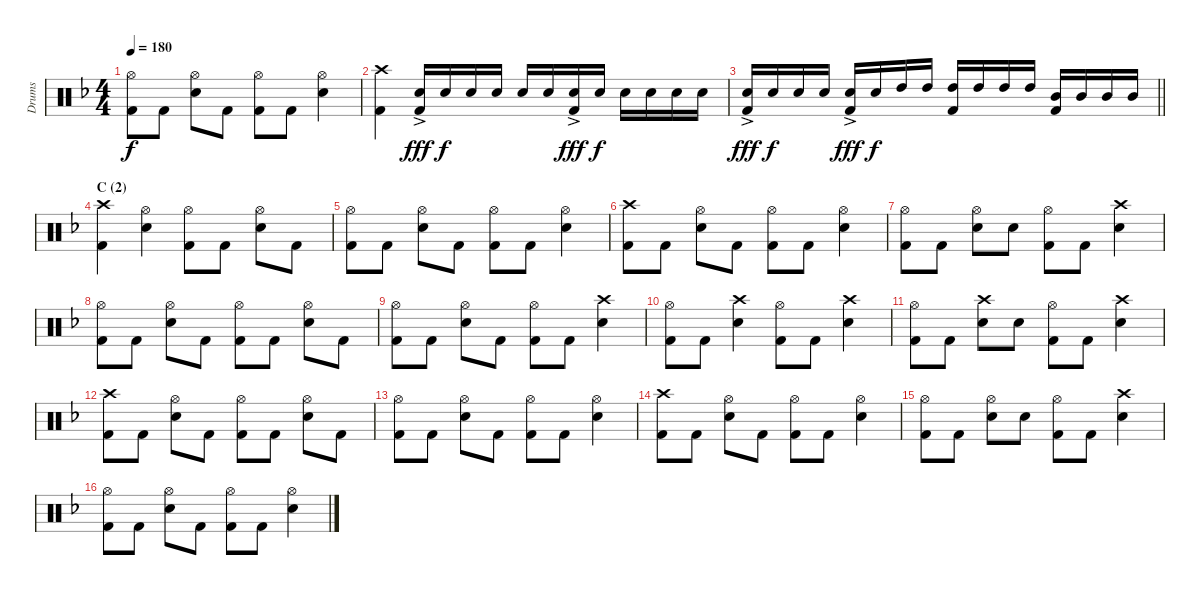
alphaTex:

\track ("Drums" "Drums") {instrument percussion}
\staff {score}
\articulation defaults
\ts (4 4)
\tempo 180
\clef neutral
\ks dminor
("Hi-Hat (open)" "Kick (hit) 2").8{dy f} "Kick (hit) 2".8 ("Hi-Hat (open)" "Snare (hit) 2").8 "Kick (hit) 2".8 ("Hi-Hat (open)" "Kick (hit) 2").8 "Kick (hit) 2".8 ("Hi-Hat (open)" "Snare (hit) 2").4 |
("Crash high (hit)" "Kick (hit) 2").4 ("Snare (hit) 2" "Kick (hit) 2"{ac}).16{dy fff} "Snare (hit) 2".16{dy f} "Snare (hit) 2".16 "Snare (hit) 2".16 "Snare (hit) 2".16 "Snare (hit) 2".16 ("Snare (hit) 2"{ac} "Kick (hit) 2").16{dy fff} "Snare (hit) 2".16{dy f} "Snare (hit) 2".16 "Snare (hit) 2".16 "Snare (hit) 2".16 "Snare (hit) 2".16 |
\barLineRight lightlight
("Snare (hit) 2"{ac} "Kick (hit) 2").16{dy fff} "Snare (hit) 2".16{dy f} "Snare (hit) 2".16 "Snare (hit) 2".16 ("Snare (hit) 2"{ac} "Kick (hit) 2").16{dy fff} "Snare (hit) 2".16{dy f} "High Tom (hit)".16 "High Tom (hit)".16 ("High Tom (hit)" "Kick (hit) 2").16 "High Tom (hit)".16 "High Tom (hit)".16 "High Tom (hit)".16 ("Mid Tom (hit)" "Kick (hit) 2").16 "Mid Tom (hit)".16 "Mid Tom (hit)".16 "Mid Tom (hit)".16 |
\section ("" "C (2)")
("Crash high (hit)" "Kick (hit) 2").4 ("Hi-Hat (open)" "Snare (hit) 2").4 ("Hi-Hat (open)" "Kick (hit) 2").8 "Kick (hit) 2".8 ("Hi-Hat (open)" "Snare (hit) 2").8 "Kick (hit) 2".8 |
("Hi-Hat (open)" "Kick (hit) 2").8 "Kick (hit) 2".8 ("Hi-Hat (open)" "Snare (hit) 2").8 "Kick (hit) 2".8 ("Hi-Hat (open)" "Kick (hit) 2").8 "Kick (hit) 2".8 ("Hi-Hat (open)" "Snare (hit) 2").4 |
("Crash high (hit)" "Kick (hit) 2").8 "Kick (hit) 2".8 ("Hi-Hat (open)" "Snare (hit) 2").8 "Kick (hit) 2".8 ("Hi-Hat (open)" "Kick (hit) 2").8 "Kick (hit) 2".8 ("Hi-Hat (open)" "Snare (hit) 2").4 |
("Hi-Hat (open)" "Kick (hit) 2").8 "Kick (hit) 2".8 ("Hi-Hat (open)" "Snare (hit) 2").8 "Snare (hit) 2".8 ("Hi-Hat (open)" "Kick (hit) 2").8 "Kick (hit) 2".8 ("Crash high (hit)" "Snare (hit) 2").4 |
("Hi-Hat (open)" "Kick (hit) 2").8 "Kick (hit) 2".8 ("Hi-Hat (open)" "Snare (hit) 2").8 "Kick (hit) 2".8 ("Hi-Hat (open)" "Kick (hit) 2").8 "Kick (hit) 2".8 ("Hi-Hat (open)" "Snare (hit) 2").8 "Kick (hit) 2".8 |
("Hi-Hat (open)" "Kick (hit) 2").8 "Kick (hit) 2".8 ("Hi-Hat (open)" "Snare (hit) 2").8 "Kick (hit) 2".8 ("Hi-Hat (open)" "Kick (hit) 2").8 "Kick (hit) 2".8 ("Crash high (hit)" "Snare (hit) 2").4 |
("Hi-Hat (open)" "Kick (hit) 2").8 "Kick (hit) 2".8 ("Crash high (hit)" "Snare (hit) 2").4 ("Hi-Hat (open)" "Kick (hit) 2").8 "Kick (hit) 2".8 ("Crash high (hit)" "Snare (hit) 2").4 |
("Hi-Hat (open)" "Kick (hit) 2").8 "Kick (hit) 2".8 ("Crash high (hit)" "Snare (hit) 2").8 "Snare (hit) 2".8 ("Hi-Hat (open)" "Kick (hit) 2").8 "Kick (hit) 2".8 ("Crash high (hit)" "Snare (hit) 2").4 |
("Crash high (hit)" "Kick (hit) 2").8 "Kick (hit) 2".8 ("Hi-Hat (open)" "Snare (hit) 2").8 "Kick (hit) 2".8 ("Hi-Hat (open)" "Kick (hit) 2").8 "Kick (hit) 2".8 ("Hi-Hat (open)" "Snare (hit) 2").8 "Kick (hit) 2".8 |
("Hi-Hat (open)" "Kick (hit) 2").8 "Kick (hit) 2".8 ("Hi-Hat (open)" "Snare (hit) 2").8 "Kick (hit) 2".8 ("Hi-Hat (open)" "Kick (hit) 2").8 "Kick (hit) 2".8 ("Hi-Hat (open)" "Snare (hit) 2").4 |
("Crash high (hit)" "Kick (hit) 2").8 "Kick (hit) 2".8 ("Hi-Hat (open)" "Snare (hit) 2").8 "Kick (hit) 2".8 ("Hi-Hat (open)" "Kick (hit) 2").8 "Kick (hit) 2".8 ("Hi-Hat (open)" "Snare (hit) 2").4 |
("Hi-Hat (open)" "Kick (hit) 2").8 "Kick (hit) 2".8 ("Hi-Hat (open)" "Snare (hit) 2").8 "Snare (hit) 2".8 ("Hi-Hat (open)" "Kick (hit) 2").8 "Kick (hit) 2".8 ("Crash high (hit)" "Snare (hit) 2").4 |
("Hi-Hat (open)" "Kick (hit) 2").8 "Kick (hit) 2".8 ("Hi-Hat (open)" "Snare (hit) 2").8 "Kick (hit) 2".8 ("Hi-Hat (open)" "Kick (hit) 2").8 "Kick (hit) 2".8 ("Hi-Hat (open)" "Snare (hit) 2").4
